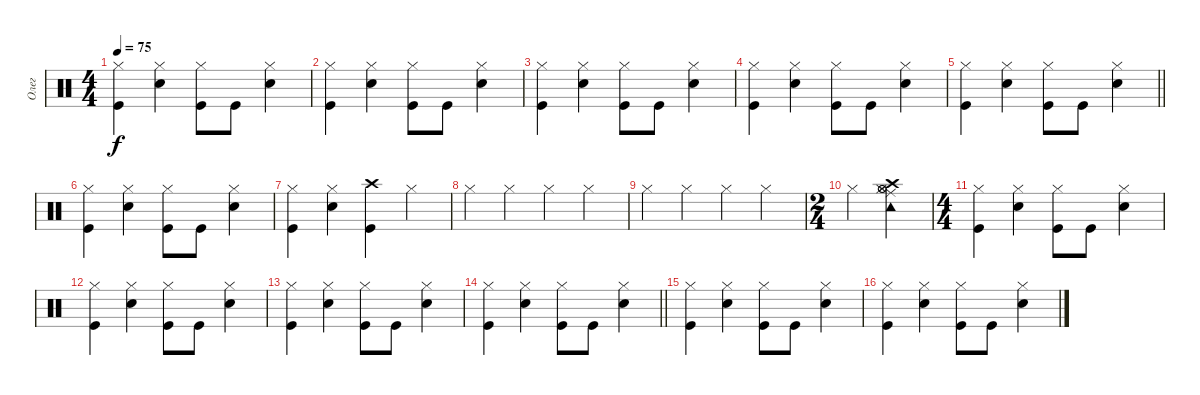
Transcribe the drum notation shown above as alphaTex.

\track ("Олег" "Олег") {instrument percussion}
\staff {score}
\articulation defaults
\ts (4 4)
\tempo 75
\clef neutral
\ks c
("Hi-Hat (closed)" "Kick (hit)").4{dy f} ("Hi-Hat (closed)" "Snare (hit) 2").4 ("Hi-Hat (closed)" "Kick (hit)").8 "Kick (hit)".8 ("Hi-Hat (closed)" "Snare (hit) 2").4 |
("Hi-Hat (closed)" "Kick (hit)").4 ("Hi-Hat (closed)" "Snare (hit) 2").4 ("Hi-Hat (closed)" "Kick (hit)").8 "Kick (hit)".8 ("Hi-Hat (closed)" "Snare (hit) 2").4 |
("Hi-Hat (closed)" "Kick (hit)").4 ("Hi-Hat (closed)" "Snare (hit) 2").4 ("Hi-Hat (closed)" "Kick (hit)").8 "Kick (hit)".8 ("Hi-Hat (closed)" "Snare (hit) 2").4 |
("Hi-Hat (closed)" "Kick (hit)").4 ("Hi-Hat (closed)" "Snare (hit) 2").4 ("Hi-Hat (closed)" "Kick (hit)").8 "Kick (hit)".8 ("Hi-Hat (closed)" "Snare (hit) 2").4 |
\barLineRight lightlight
("Hi-Hat (closed)" "Kick (hit)").4 ("Hi-Hat (closed)" "Snare (hit) 2").4 ("Hi-Hat (closed)" "Kick (hit)").8 "Kick (hit)".8 ("Hi-Hat (closed)" "Snare (hit) 2").4 |
("Hi-Hat (closed)" "Kick (hit)").4 ("Hi-Hat (closed)" "Snare (hit) 2").4 ("Hi-Hat (closed)" "Kick (hit)").8 "Kick (hit)".8 ("Hi-Hat (closed)" "Snare (hit) 2").4 |
("Hi-Hat (closed)" "Kick (hit)").4 ("Hi-Hat (closed)" "Snare (hit) 2").4 ("Crash high (hit)" "Kick (hit)").4 "Hi-Hat (closed)".4 |
"Hi-Hat (closed)".4 "Hi-Hat (closed)".4 "Hi-Hat (closed)".4 "Hi-Hat (closed)".4 |
"Hi-Hat (closed)".4 "Hi-Hat (closed)".4 "Hi-Hat (closed)".4 "Hi-Hat (closed)".4 |
\ts (2 4)
"Hi-Hat (closed)".4 ("Crash high (hit)" "Ride (middle)" "Hi-Hat (open)" "Hi-Hat (open)" "Hi-Hat (closed)" "Tambourine (hit)").4 |
\ts (4 4)
("Hi-Hat (closed)" "Kick (hit)").4 ("Hi-Hat (closed)" "Snare (hit) 2").4 ("Hi-Hat (closed)" "Kick (hit)").8 "Kick (hit)".8 ("Hi-Hat (closed)" "Snare (hit) 2").4 |
("Hi-Hat (closed)" "Kick (hit)").4 ("Hi-Hat (closed)" "Snare (hit) 2").4 ("Hi-Hat (closed)" "Kick (hit)").8 "Kick (hit)".8 ("Hi-Hat (closed)" "Snare (hit) 2").4 |
("Hi-Hat (closed)" "Kick (hit)").4 ("Hi-Hat (closed)" "Snare (hit) 2").4 ("Hi-Hat (closed)" "Kick (hit)").8 "Kick (hit)".8 ("Hi-Hat (closed)" "Snare (hit) 2").4 |
\barLineRight lightlight
("Hi-Hat (closed)" "Kick (hit)").4 ("Hi-Hat (closed)" "Snare (hit) 2").4 ("Hi-Hat (closed)" "Kick (hit)").8 "Kick (hit)".8 ("Hi-Hat (closed)" "Snare (hit) 2").4 |
("Hi-Hat (closed)" "Kick (hit)").4 ("Hi-Hat (closed)" "Snare (hit) 2").4 ("Hi-Hat (closed)" "Kick (hit)").8 "Kick (hit)".8 ("Hi-Hat (closed)" "Snare (hit) 2").4 |
("Hi-Hat (closed)" "Kick (hit)").4 ("Hi-Hat (closed)" "Snare (hit) 2").4 ("Hi-Hat (closed)" "Kick (hit)").8 "Kick (hit)".8 ("Hi-Hat (closed)" "Snare (hit) 2").4
